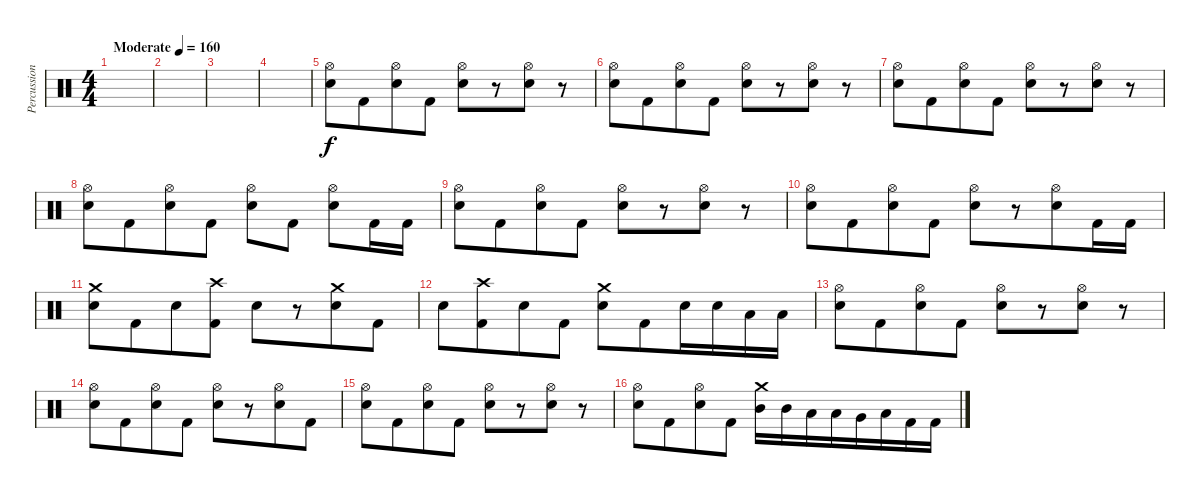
\track ("Percussion" "Percussion") {instrument percussion}
\staff {score}
\articulation defaults
\ts (4 4)
\tempo (160 "Moderate")
\clef neutral
\ks c
|
|
|
|
("Hi-Hat (open)" "Electric Snare (hit)").8 "Kick (hit) 2".8{beam merge} ("Hi-Hat (open)" "Electric Snare (hit)").8{beam merge} "Kick (hit) 2".8 ("Hi-Hat (open)" "Electric Snare (hit)").8{beam merge} r.8 ("Hi-Hat (open)" "Electric Snare (hit)").8{beam merge} r.8 |
("Hi-Hat (open)" "Electric Snare (hit)").8 "Kick (hit) 2".8{beam merge} ("Hi-Hat (open)" "Electric Snare (hit)").8{beam merge} "Kick (hit) 2".8 ("Hi-Hat (open)" "Electric Snare (hit)").8{beam merge} r.8 ("Hi-Hat (open)" "Electric Snare (hit)").8{beam merge} r.8 |
("Hi-Hat (open)" "Electric Snare (hit)").8 "Kick (hit) 2".8{beam merge} ("Hi-Hat (open)" "Electric Snare (hit)").8{beam merge} "Kick (hit) 2".8 ("Hi-Hat (open)" "Electric Snare (hit)").8{beam merge} r.8 ("Hi-Hat (open)" "Electric Snare (hit)").8{beam merge} r.8 |
("Hi-Hat (open)" "Electric Snare (hit)").8 "Kick (hit) 2".8{beam merge} ("Hi-Hat (open)" "Electric Snare (hit)").8{beam merge} "Kick (hit) 2".8 ("Hi-Hat (open)" "Electric Snare (hit)").8{beam merge} "Kick (hit) 2".8 ("Hi-Hat (open)" "Electric Snare (hit)").8{beam merge} "Kick (hit) 2".16 "Kick (hit) 2".16 |
("Hi-Hat (open)" "Electric Snare (hit)").8 "Kick (hit) 2".8{beam merge} ("Hi-Hat (open)" "Electric Snare (hit)").8{beam merge} "Kick (hit) 2".8 ("Hi-Hat (open)" "Electric Snare (hit)").8{beam merge} r.8 ("Hi-Hat (open)" "Electric Snare (hit)").8{beam merge} r.8 |
("Hi-Hat (open)" "Electric Snare (hit)").8 "Kick (hit) 2".8{beam merge} ("Hi-Hat (open)" "Electric Snare (hit)").8{beam merge} "Kick (hit) 2".8 ("Hi-Hat (open)" "Electric Snare (hit)").8{beam merge} r.8 ("Hi-Hat (open)" "Electric Snare (hit)").8{beam merge} "Kick (hit) 2".16{beam merge} "Kick (hit) 2".16 |
("Crash medium (hit)" "Electric Snare (hit)").8 "Kick (hit) 2".8{beam merge} "Electric Snare (hit)".8{beam merge} ("Crash high (hit)" "Kick (hit) 2").8 "Electric Snare (hit)".8{beam merge} r.8 ("Crash medium (hit)" "Electric Snare (hit)").8{beam merge} "Kick (hit) 2".8 |
"Electric Snare (hit)".8 ("Crash high (hit)" "Kick (hit) 2").8{beam merge} "Electric Snare (hit)".8{beam merge} "Kick (hit) 2".8 ("Crash medium (hit)" "Electric Snare (hit)").8{beam merge} "Kick (hit) 2".8{beam merge} "Electric Snare (hit)".16{beam merge} "Electric Snare (hit)".16 "Low Floor Tom (hit)".16 "Low Floor Tom (hit)".16 |
("Hi-Hat (open)" "Electric Snare (hit)").8 "Kick (hit) 2".8{beam merge} ("Hi-Hat (open)" "Electric Snare (hit)").8{beam merge} "Kick (hit) 2".8 ("Hi-Hat (open)" "Electric Snare (hit)").8{beam merge} r.8 ("Hi-Hat (open)" "Electric Snare (hit)").8{beam merge} r.8 |
("Hi-Hat (open)" "Electric Snare (hit)").8 "Kick (hit) 2".8{beam merge} ("Hi-Hat (open)" "Electric Snare (hit)").8{beam merge} "Kick (hit) 2".8 ("Hi-Hat (open)" "Electric Snare (hit)").8{beam merge} r.8 ("Hi-Hat (open)" "Electric Snare (hit)").8{beam merge} "Kick (hit) 2".8 |
("Hi-Hat (open)" "Electric Snare (hit)").8 "Kick (hit) 2".8{beam merge} ("Hi-Hat (open)" "Electric Snare (hit)").8{beam merge} "Kick (hit) 2".8 ("Hi-Hat (open)" "Electric Snare (hit)").8{beam merge} r.8 ("Hi-Hat (open)" "Electric Snare (hit)").8{beam merge} r.8 |
("Hi-Hat (open)" "Electric Snare (hit)").8 "Kick (hit) 2".8{beam merge} ("Hi-Hat (open)" "Electric Snare (hit)").8{beam merge} "Kick (hit) 2".8 ("Crash medium (hit)" "Mid Tom (hit)").16 "Mid Tom (hit)".16 "Low Tom (hit)".16 "Low Tom (hit)".16{beam merge} "Very Low Tom (hit)".16{beam merge} "Low Floor Tom (hit)".16{beam merge} "Kick (hit) 2".16{beam merge} "Kick (hit) 2".16
